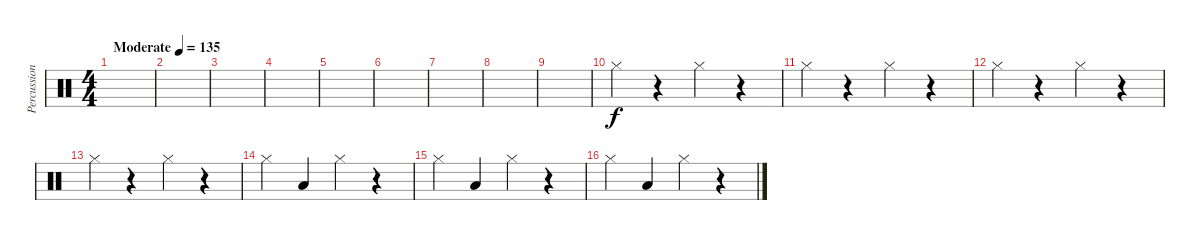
\track ("Percussion" "Percussion") {instrument percussion}
\staff {score}
\articulation defaults
\ts (4 4)
\tempo (135 "Moderate")
\clef neutral
\ks c
|
|
|
|
|
|
|
|
|
"Hi-Hat (closed)".4 r.4 "Hi-Hat (closed)".4 r.4 |
"Hi-Hat (closed)".4 r.4 "Hi-Hat (closed)".4 r.4 |
"Hi-Hat (closed)".4 r.4 "Hi-Hat (closed)".4 r.4 |
"Hi-Hat (closed)".4 r.4 "Hi-Hat (closed)".4 r.4 |
"Hi-Hat (closed)".4 "Low Tom (hit)".4 "Hi-Hat (closed)".4 r.4 |
"Hi-Hat (closed)".4 "Low Tom (hit)".4 "Hi-Hat (closed)".4 r.4 |
"Hi-Hat (closed)".4 "Low Tom (hit)".4 "Hi-Hat (closed)".4 r.4
